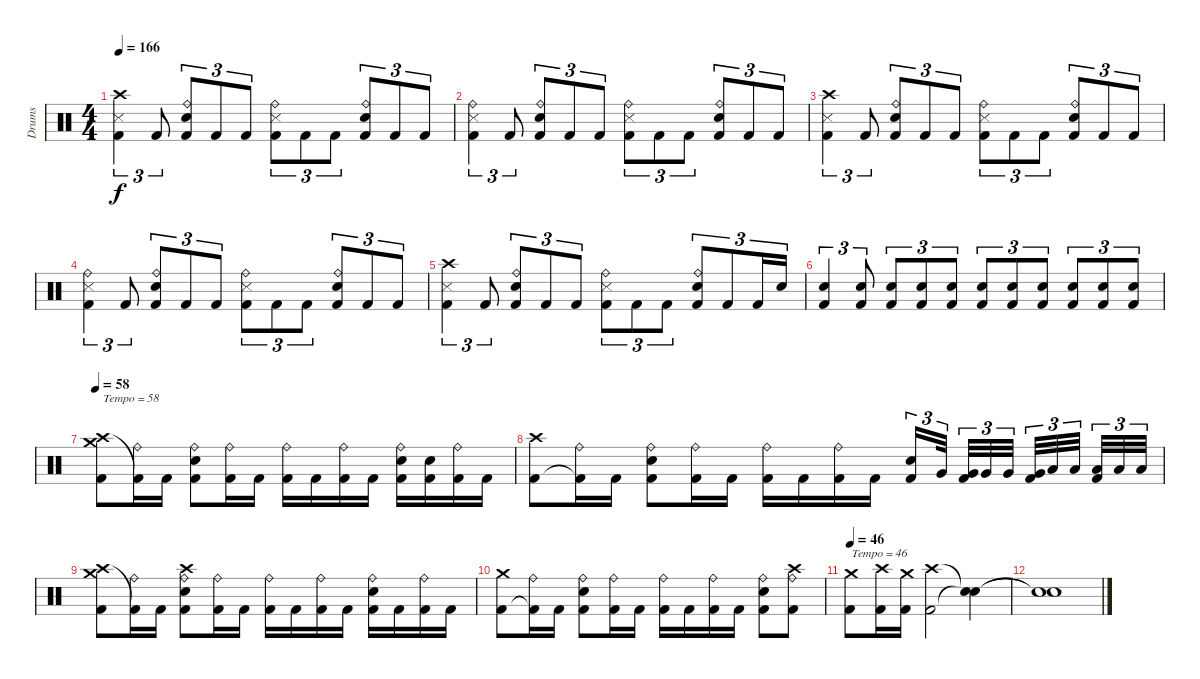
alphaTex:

\track ("Drums" "Drums") {instrument percussion}
\staff {score}
\articulation defaults
\ts (4 4)
\tempo 166
\clef neutral
\ks c
("Crash high (hit)" "Snare (side stick) 3" "Kick (hit) 2").4{tu (3 2) dy f} "Kick (hit) 2".8{tu (3 2)} ("Ride (bell)" "Electric Snare (hit)" "Kick (hit) 2").8{tu (3 2)} "Kick (hit) 2".8{tu (3 2)} "Kick (hit) 2".8{tu (3 2)} ("Ride (bell)" "Snare (side stick) 3" "Kick (hit) 2").8{tu (3 2)} "Kick (hit) 2".8{tu (3 2)} "Kick (hit) 2".8{tu (3 2)} ("Ride (bell)" "Electric Snare (hit)" "Kick (hit) 2").8{tu (3 2)} "Kick (hit) 2".8{tu (3 2)} "Kick (hit) 2".8{tu (3 2)} |
("Ride (bell)" "Snare (side stick) 3" "Kick (hit) 2").4{tu (3 2)} "Kick (hit) 2".8{tu (3 2)} ("Ride (bell)" "Electric Snare (hit)" "Kick (hit) 2").8{tu (3 2)} "Kick (hit) 2".8{tu (3 2)} "Kick (hit) 2".8{tu (3 2)} ("Ride (bell)" "Snare (side stick) 3" "Kick (hit) 2").8{tu (3 2)} "Kick (hit) 2".8{tu (3 2)} "Kick (hit) 2".8{tu (3 2)} ("Ride (bell)" "Electric Snare (hit)" "Kick (hit) 2").8{tu (3 2)} "Kick (hit) 2".8{tu (3 2)} "Kick (hit) 2".8{tu (3 2)} |
("Crash high (hit)" "Snare (side stick) 3" "Kick (hit) 2").4{tu (3 2)} "Kick (hit) 2".8{tu (3 2)} ("Ride (bell)" "Electric Snare (hit)" "Kick (hit) 2").8{tu (3 2)} "Kick (hit) 2".8{tu (3 2)} "Kick (hit) 2".8{tu (3 2)} ("Ride (bell)" "Snare (side stick) 3" "Kick (hit) 2").8{tu (3 2)} "Kick (hit) 2".8{tu (3 2)} "Kick (hit) 2".8{tu (3 2)} ("Ride (bell)" "Electric Snare (hit)" "Kick (hit) 2").8{tu (3 2)} "Kick (hit) 2".8{tu (3 2)} "Kick (hit) 2".8{tu (3 2)} |
("Ride (bell)" "Snare (side stick) 3" "Kick (hit) 2").4{tu (3 2)} "Kick (hit) 2".8{tu (3 2)} ("Ride (bell)" "Electric Snare (hit)" "Kick (hit) 2").8{tu (3 2)} "Kick (hit) 2".8{tu (3 2)} "Kick (hit) 2".8{tu (3 2)} ("Ride (bell)" "Snare (side stick) 3" "Kick (hit) 2").8{tu (3 2)} "Kick (hit) 2".8{tu (3 2)} "Kick (hit) 2".8{tu (3 2)} ("Ride (bell)" "Electric Snare (hit)" "Kick (hit) 2").8{tu (3 2)} "Kick (hit) 2".8{tu (3 2)} "Kick (hit) 2".8{tu (3 2)} |
("Crash high (hit)" "Snare (side stick) 3" "Kick (hit) 2").4{tu (3 2)} "Kick (hit) 2".8{tu (3 2)} ("Ride (bell)" "Electric Snare (hit)" "Kick (hit) 2").8{tu (3 2)} "Kick (hit) 2".8{tu (3 2)} "Kick (hit) 2".8{tu (3 2)} ("Ride (bell)" "Snare (side stick) 3" "Kick (hit) 2").8{tu (3 2)} "Kick (hit) 2".8{tu (3 2)} "Kick (hit) 2".8{tu (3 2)} ("Ride (bell)" "Electric Snare (hit)" "Kick (hit) 2").8{tu (3 2)} "Kick (hit) 2".8{tu (3 2)} "Kick (hit) 2".16{tu (3 2)} "Electric Snare (hit)".16{tu (3 2)} |
("Electric Snare (hit)" "Kick (hit) 2").4{tu (3 2)} ("Electric Snare (hit)" "Kick (hit) 2").8{tu (3 2)} ("Electric Snare (hit)" "Kick (hit) 2").8{tu (3 2)} ("Electric Snare (hit)" "Kick (hit) 2").8{tu (3 2)} ("Electric Snare (hit)" "Kick (hit) 2").8{tu (3 2)} ("Electric Snare (hit)" "Kick (hit) 2").8{tu (3 2)} ("Electric Snare (hit)" "Kick (hit) 2").8{tu (3 2)} ("Electric Snare (hit)" "Kick (hit) 2").8{tu (3 2)} ("Electric Snare (hit)" "Kick (hit) 2").8{tu (3 2)} ("Electric Snare (hit)" "Kick (hit) 2").8{tu (3 2)} ("Electric Snare (hit)" "Kick (hit) 2").8{tu (3 2)} |
\tempo 58
("Crash medium (hit)" "Crash high (hit)" "Kick (hit) 2").8{txt "Tempo = 58"} ("Ride (bell)" "Kick (hit) 2"{t}).16 "Kick (hit) 2".16 ("Ride (bell)" "Electric Snare (hit)" "Kick (hit) 2").8 ("Ride (bell)" "Kick (hit) 2").16 "Kick (hit) 2".16 ("Ride (bell)" "Kick (hit) 2").16 "Kick (hit) 2".16 ("Ride (bell)" "Kick (hit) 2").16 "Kick (hit) 2".16 ("Ride (bell)" "Electric Snare (hit)" "Kick (hit) 2").16 ("Electric Snare (hit)" "Kick (hit) 2").16 ("Ride (bell)" "Kick (hit) 2").16 "Kick (hit) 2".16 |
("Crash high (hit)" "Kick (hit) 2").8 ("Ride (bell)" "Kick (hit) 2"{t}).16 "Kick (hit) 2".16 ("Ride (bell)" "Electric Snare (hit)" "Kick (hit) 2").8 ("Ride (bell)" "Kick (hit) 2").16 "Kick (hit) 2".16 ("Ride (bell)" "Kick (hit) 2").16 "Kick (hit) 2".16 ("Ride (bell)" "Kick (hit) 2").16 "Kick (hit) 2".16 ("Electric Snare (hit)" "Kick (hit) 2").16{tu (3 2)} "Very Low Tom (hit)".32{tu (3 2)} ("Very Low Tom (hit)" "Kick (hit) 2").32{tu (3 2)} "Very Low Tom (hit)".32{tu (3 2)} "Very Low Tom (hit)".32{tu (3 2)} ("Very Low Tom (hit)" "Kick (hit) 2").32{tu (3 2)} "Low Tom (hit)".32{tu (3 2)} "Low Tom (hit)".32{tu (3 2)} ("Low Tom (hit)" "Kick (hit) 2").32{tu (3 2)} "Low Tom (hit)".32{tu (3 2)} "Low Tom (hit)".32{tu (3 2)} |
("Crash medium (hit)" "Crash high (hit)" "Kick (hit) 2").8 ("Ride (bell)" "Kick (hit) 2"{t}).16 "Kick (hit) 2".16 ("Crash high (hit)" "Ride (bell)" "Electric Snare (hit)" "Kick (hit) 2").8 ("Ride (bell)" "Kick (hit) 2").16 "Kick (hit) 2".16 ("Ride (bell)" "Kick (hit) 2").16 "Kick (hit) 2".16 ("Ride (bell)" "Kick (hit) 2").16 "Kick (hit) 2".16 ("Ride (bell)" "Electric Snare (hit)" "Kick (hit) 2").16 "Kick (hit) 2".16 ("Ride (bell)" "Kick (hit) 2").16 "Kick (hit) 2".16 |
("Crash medium (hit)" "Kick (hit) 2").8 ("Ride (bell)" "Kick (hit) 2"{t}).16 "Kick (hit) 2".16 ("Ride (bell)" "Electric Snare (hit)" "Kick (hit) 2").8 ("Ride (bell)" "Kick (hit) 2").16 "Kick (hit) 2".16 ("Ride (bell)" "Kick (hit) 2").16 "Kick (hit) 2".16 ("Ride (bell)" "Kick (hit) 2").16 "Kick (hit) 2".16 ("Ride (bell)" "Electric Snare (hit)" "Kick (hit) 2").8 ("Crash high (hit)" "Ride (bell)" "Kick (hit) 2").8 |
\tempo 46
("Crash medium (hit)" "Kick (hit) 2").8{txt "Tempo = 46"} ("Crash high (hit)" "Kick (hit) 2").16 ("Crash medium (hit)" "Kick (hit) 2").16 ("Crash high (hit)" "Kick (hit) 2").2 ("Snare (hit)"{t} "Snare (hit)"{t}).4 |
("Snare (hit)"{t} "Snare (hit)"{t}).1{volume 0}
